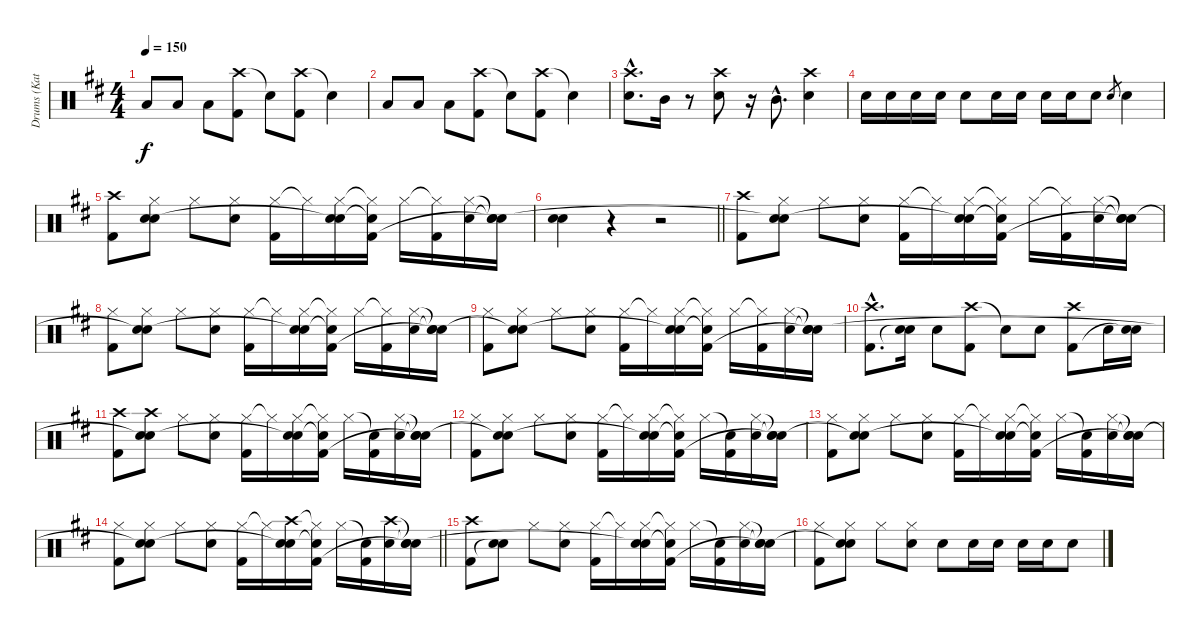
\track ("Drums (Katsuji)" "Drums (Kat") {instrument percussion}
\staff {score}
\articulation defaults
\ts (4 4)
\tempo 150
\clef neutral
\ks d "Low Tom (hit)".8{dy f} "Low Tom (hit)".8 "Low Tom (hit)".8
("Crash high (hit)" "Kick (hit) 2").8 "Snare (hit)"{t}.8 ("Crash high (hit)" "Kick (hit) 2").8 "Snare (hit)"{t}.4 |
"Low Tom (hit)".8 "Low Tom (hit)".8 "Low Tom (hit)".8 ("Crash high (hit)" "Kick (hit) 2").8 "Snare (hit)"{t}.8 ("Crash high (hit)" "Kick (hit) 2").8 "Snare (hit)"{t}.4 |
("Crash high (hit)"{hac} "Snare (hit) 2"{hac}).8{d} "Mid Tom (hit)".16 r.8 ("Crash high (hit)" "Snare (hit) 2").8 r.16 "Mid Tom (hit)"{hac}.8{d} ("Crash high (hit)" "Snare (hit) 2").4 |
"Snare (hit) 2".16 "Snare (hit) 2".16 "Snare (hit) 2".16 "Snare (hit) 2".16 "Snare (hit) 2".8 "Snare (hit) 2".16 "Snare (hit) 2".16 "Snare (hit) 2".16 "Snare (hit) 2".16 "Snare (hit) 2".8 "Snare (hit) 2".8{gr} "Snare (hit) 2".4 |
("Crash high (hit)" "Kick (hit) 2").8 ("Hi-Hat (closed)" "Snare (hit) 2" "Snare (hit)").8 "Hi-Hat (closed)".8 ("Hi-Hat (closed)" "Snare (hit) 2").8 ("Hi-Hat (closed)" "Kick (hit) 2").16 "Hi-Hat (closed)"{t}.16 ("Hi-Hat (closed)" "Snare (hit) 2" "Snare (hit)"{t}).16 ("Hi-Hat (closed)"{t} "Snare (hit)"{t} "Kick (hit) 2").16 "Hi-Hat (closed)".16 ("Hi-Hat (closed)"{t} "Kick (hit) 2").16 ("Hi-Hat (closed)" "Snare (hit) 2").16 ("Snare (hit)"{t} "Snare (hit)"{t} "Snare (hit)"{t}).16 |
\barLineRight lightlight
("Snare (hit) 2" "Snare (hit) 2").4 r.4 r.2 |
("Crash high (hit)" "Kick (hit) 2").8 ("Hi-Hat (closed)" "Snare (hit) 2" "Snare (hit)"{t}).8 "Hi-Hat (closed)".8 ("Hi-Hat (closed)" "Snare (hit) 2").8 ("Hi-Hat (closed)" "Kick (hit) 2").16 "Hi-Hat (closed)"{t}.16 ("Hi-Hat (closed)" "Snare (hit) 2" "Snare (hit)"{t}).16 ("Hi-Hat (closed)"{t} "Snare (hit)"{t} "Kick (hit) 2").16 "Hi-Hat (closed)".16 ("Hi-Hat (closed)"{t} "Kick (hit) 2").16 ("Hi-Hat (closed)" "Snare (hit) 2").16 ("Snare (hit)"{t} "Snare (hit)"{t} "Snare (hit)"{t}).16 |
("Hi-Hat (closed)" "Kick (hit) 2").8 ("Hi-Hat (closed)" "Snare (hit) 2" "Snare (hit)"{t}).8 "Hi-Hat (closed)".8 ("Hi-Hat (closed)" "Snare (hit) 2").8 ("Hi-Hat (closed)" "Kick (hit) 2").16 "Hi-Hat (closed)"{t}.16 ("Hi-Hat (closed)" "Snare (hit) 2" "Snare (hit)"{t}).16 ("Hi-Hat (closed)"{t} "Snare (hit)"{t} "Kick (hit) 2").16 "Hi-Hat (closed)".16 ("Hi-Hat (closed)"{t} "Kick (hit) 2").16 ("Hi-Hat (closed)" "Snare (hit) 2").16 ("Snare (hit)"{t} "Snare (hit)"{t} "Snare (hit)"{t}).16 |
("Hi-Hat (closed)" "Kick (hit) 2").8 ("Hi-Hat (closed)" "Snare (hit) 2" "Snare (hit)"{t}).8 "Hi-Hat (closed)".8 ("Hi-Hat (closed)" "Snare (hit) 2").8 ("Hi-Hat (closed)" "Kick (hit) 2").16 "Hi-Hat (closed)"{t}.16 ("Hi-Hat (closed)" "Snare (hit) 2" "Snare (hit)"{t}).16 ("Hi-Hat (closed)"{t} "Snare (hit)"{t} "Kick (hit) 2").16 "Hi-Hat (closed)".16 ("Hi-Hat (closed)"{t} "Kick (hit) 2").16 ("Hi-Hat (closed)" "Snare (hit) 2").16 ("Snare (hit)"{t} "Snare (hit)"{t} "Snare (hit)"{t}).16 |
("Crash high (hit)"{hac} "Kick (hit) 2"{hac}).8{d} ("Snare (hit) 2" "Snare (hit)"{t}).16 "Snare (hit) 2".8 ("Crash high (hit)" "Kick (hit) 2").8 "Snare (hit)"{t}.8 "Snare (hit) 2".8 ("Crash high (hit)" "Kick (hit) 2").8 "Snare (hit) 2".16 ("Snare (hit) 2" "Snare (hit)"{t}).16 |
("Crash high (hit)" "Kick (hit) 2").8 ("Crash high (hit)" "Snare (hit) 2" "Snare (hit)"{t}).8 "Hi-Hat (closed)".8 ("Hi-Hat (closed)" "Snare (hit) 2").8 ("Hi-Hat (closed)" "Kick (hit) 2").16 "Hi-Hat (closed)"{t}.16 ("Hi-Hat (closed)" "Snare (hit) 2" "Snare (hit)"{t}).16 ("Hi-Hat (closed)"{t} "Electric Snare (hit)"{t} "Kick (hit) 2").16 "Hi-Hat (closed)".16 ("Snare (hit)"{t} "Kick (hit) 2").16 ("Hi-Hat (closed)" "Snare (hit) 2").16 ("Snare (hit)"{t} "Snare (hit)"{t} "Snare (hit)"{t}).16 |
("Hi-Hat (closed)" "Kick (hit) 2").8 ("Hi-Hat (closed)" "Snare (hit) 2" "Snare (hit)"{t}).8 "Hi-Hat (closed)".8 ("Hi-Hat (closed)" "Snare (hit) 2").8 ("Hi-Hat (closed)" "Kick (hit) 2").16 "Hi-Hat (closed)"{t}.16 ("Hi-Hat (closed)" "Snare (hit) 2" "Snare (hit)"{t}).16 ("Hi-Hat (closed)"{t} "Electric Snare (hit)"{t} "Kick (hit) 2").16 "Hi-Hat (closed)".16 ("Snare (hit)"{t} "Kick (hit) 2").16 ("Hi-Hat (closed)" "Snare (hit) 2").16 ("Snare (hit)"{t} "Snare (hit)"{t} "Snare (hit)"{t}).16 |
("Hi-Hat (closed)" "Kick (hit) 2").8 ("Hi-Hat (closed)" "Snare (hit) 2" "Snare (hit)"{t}).8 "Hi-Hat (closed)".8 ("Hi-Hat (closed)" "Snare (hit) 2").8 ("Hi-Hat (closed)" "Kick (hit) 2").16 "Hi-Hat (closed)"{t}.16 ("Hi-Hat (closed)" "Snare (hit) 2" "Snare (hit)"{t}).16 ("Hi-Hat (closed)"{t} "Electric Snare (hit)"{t} "Kick (hit) 2").16 "Hi-Hat (closed)".16 ("Snare (hit)"{t} "Kick (hit) 2").16 ("Hi-Hat (closed)" "Snare (hit) 2").16 ("Snare (hit)"{t} "Snare (hit)"{t} "Snare (hit)"{t}).16 |
\barLineRight lightlight
("Hi-Hat (closed)" "Kick (hit) 2").8 ("Hi-Hat (closed)" "Snare (hit) 2" "Snare (hit)"{t}).8 "Hi-Hat (closed)".8 ("Hi-Hat (closed)" "Snare (hit) 2").8 ("Hi-Hat (closed)" "Kick (hit) 2").16 "Hi-Hat (closed)"{t}.16 ("Crash high (hit)" "Snare (hit) 2" "Snare (hit)"{t}).16 ("Hi-Hat (closed)"{t} "Electric Snare (hit)"{t} "Kick (hit) 2").16 "Hi-Hat (closed)".16 ("Snare (hit)"{t} "Kick (hit) 2").16 ("Crash high (hit)" "Snare (hit) 2").16 ("Snare (hit)"{t} "Snare (hit)"{t} "Snare (hit)"{t}).16 |
("Crash high (hit)" "Kick (hit) 2").8 ("Snare (hit) 2" "Snare (hit)"{t}).8 "Hi-Hat (closed)".8 ("Hi-Hat (closed)" "Snare (hit) 2").8 ("Hi-Hat (closed)" "Kick (hit) 2").16 "Hi-Hat (closed)"{t}.16 ("Hi-Hat (closed)" "Snare (hit) 2" "Snare (hit)"{t}).16 ("Hi-Hat (closed)"{t} "Electric Snare (hit)"{t} "Kick (hit) 2").16 "Hi-Hat (closed)".16 ("Snare (hit)"{t} "Kick (hit) 2").16 ("Hi-Hat (closed)" "Snare (hit) 2").16 ("Snare (hit)"{t} "Snare (hit)"{t} "Snare (hit)"{t}).16 |
("Hi-Hat (closed)" "Kick (hit) 2").8 ("Hi-Hat (closed)" "Snare (hit) 2" "Snare (hit)"{t}).8 "Hi-Hat (closed)".8 ("Hi-Hat (closed)" "Snare (hit) 2").8 "Snare (hit) 2".8 "Snare (hit) 2".16 "Snare (hit) 2".16 "Snare (hit) 2".16 "Snare (hit) 2".16 "Snare (hit) 2".8
